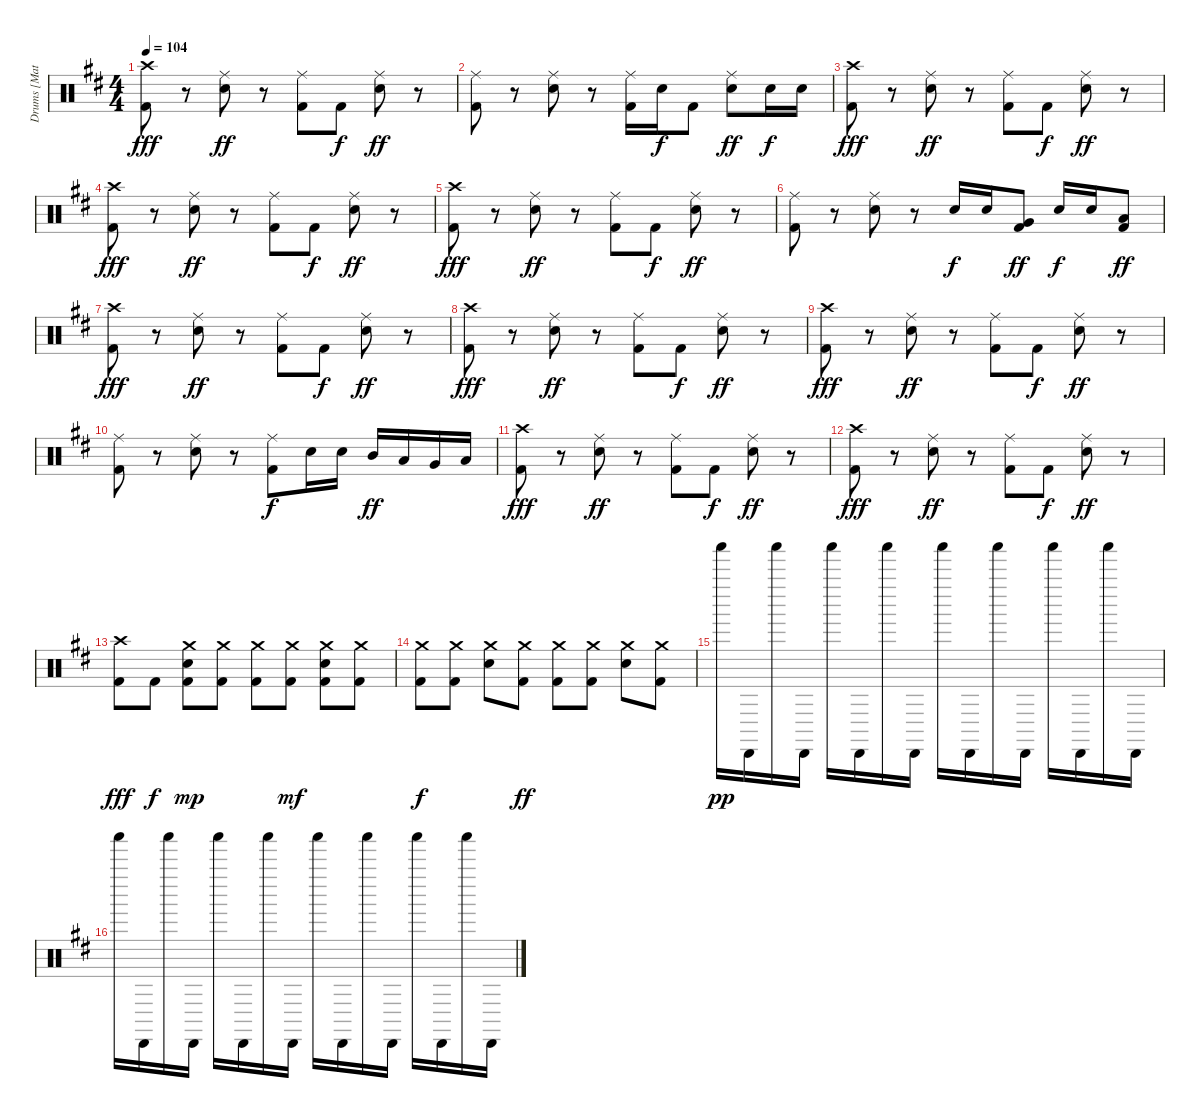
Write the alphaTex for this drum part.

\track ("Drums [Matt]" "Drums [Mat") {instrument percussion}
\staff {score}
\articulation defaults
\ts (4 4)
\tempo 104
\clef neutral
\ks d
("Kick (hit) 2" "Crash high (hit)").8{dy fff} r.8 ("Ride (middle)" "Snare (hit) 2").8{dy ff} r.8 ("Ride (middle)" "Kick (hit) 2").8 "Kick (hit) 2".8{dy f} ("Ride (middle)" "Snare (hit) 2").8{dy ff} r.8 |
("Ride (middle)" "Kick (hit) 2").8 r.8 ("Ride (middle)" "Snare (hit) 2").8 r.8 ("Ride (middle)" "Kick (hit) 2").16 "Snare (hit) 2".16{dy f} "Kick (hit) 2".8 ("Ride (middle)" "Snare (hit) 2").8{dy ff} "Snare (hit) 2".16{dy f} "Snare (hit) 2".16 |
("Kick (hit) 2" "Crash high (hit)").8{dy fff} r.8 ("Ride (middle)" "Snare (hit) 2").8{dy ff} r.8 ("Ride (middle)" "Kick (hit) 2").8 "Kick (hit) 2".8{dy f} ("Ride (middle)" "Snare (hit) 2").8{dy ff} r.8 |
("Kick (hit) 2" "Crash high (hit)").8{dy fff} r.8 ("Ride (middle)" "Snare (hit) 2").8{dy ff} r.8 ("Ride (middle)" "Kick (hit) 2").8 "Kick (hit) 2".8{dy f} ("Ride (middle)" "Snare (hit) 2").8{dy ff} r.8 |
("Kick (hit) 2" "Crash high (hit)").8{dy fff} r.8 ("Ride (middle)" "Snare (hit) 2").8{dy ff} r.8 ("Ride (middle)" "Kick (hit) 2").8 "Kick (hit) 2".8{dy f} ("Ride (middle)" "Snare (hit) 2").8{dy ff} r.8 |
("Ride (middle)" "Kick (hit) 2").8 r.8 ("Ride (middle)" "Snare (hit) 2").8 r.8 "Snare (hit) 2".16{dy f} "Snare (hit) 2".16 ("Kick (hit) 2" "Very Low Tom (hit)").8{dy ff} "Snare (hit) 2".16{dy f} "Snare (hit) 2".16 ("Kick (hit) 2" "Low Tom (hit)").8{dy ff} |
("Kick (hit) 2" "Crash high (hit)").8{dy fff} r.8 ("Ride (middle)" "Snare (hit) 2").8{dy ff} r.8 ("Ride (middle)" "Kick (hit) 2").8 "Kick (hit) 2".8{dy f} ("Ride (middle)" "Snare (hit) 2").8{dy ff} r.8 |
("Kick (hit) 2" "Crash high (hit)").8{dy fff} r.8 ("Ride (middle)" "Snare (hit) 2").8{dy ff} r.8 ("Ride (middle)" "Kick (hit) 2").8 "Kick (hit) 2".8{dy f} ("Ride (middle)" "Snare (hit) 2").8{dy ff} r.8 |
("Kick (hit) 2" "Crash high (hit)").8{dy fff} r.8 ("Ride (middle)" "Snare (hit) 2").8{dy ff} r.8 ("Ride (middle)" "Kick (hit) 2").8 "Kick (hit) 2".8{dy f} ("Ride (middle)" "Snare (hit) 2").8{dy ff} r.8 |
("Ride (middle)" "Kick (hit) 2").8 r.8 ("Ride (middle)" "Snare (hit) 2").8 r.8 ("Ride (middle)" "Kick (hit) 2").8{dy f} "Snare (hit) 2".16 "Snare (hit) 2".16 "Mid Tom (hit)".16{dy ff} "Low Tom (hit)".16 "Very Low Tom (hit)".16 "Low Floor Tom (hit)".16 |
("Kick (hit) 2" "Crash high (hit)").8{dy fff} r.8 ("Ride (middle)" "Snare (hit) 2").8{dy ff} r.8 ("Ride (middle)" "Kick (hit) 2").8 "Kick (hit) 2".8{dy f} ("Ride (middle)" "Snare (hit) 2").8{dy ff} r.8 |
("Kick (hit) 2" "Crash high (hit)").8{dy fff} r.8 ("Ride (middle)" "Snare (hit) 2").8{dy ff} r.8 ("Ride (middle)" "Kick (hit) 2").8 "Kick (hit) 2".8{dy f} ("Ride (middle)" "Snare (hit) 2").8{dy ff} r.8 |
("Kick (hit) 2" "Crash high (hit)").8{dy fff} "Kick (hit) 2".8{dy f} ("Crash medium (hit)" "Kick (hit) 2" "Snare (hit) 2").8{dy mp} ("Crash medium (hit)" "Kick (hit) 2").8 ("Crash medium (hit)" "Kick (hit) 2").8 ("Crash medium (hit)" "Kick (hit) 2").8{dy mf} ("Crash medium (hit)" "Kick (hit) 2" "Snare (hit) 2").8 ("Crash medium (hit)" "Kick (hit) 2").8 |
("Crash medium (hit)" "Kick (hit) 2").8{dy f} ("Crash medium (hit)" "Kick (hit) 2").8 ("Crash medium (hit)" "Snare (hit) 2").8 ("Crash medium (hit)" "Kick (hit) 2").8{dy ff} ("Crash medium (hit)" "Kick (hit) 2").8 ("Crash medium (hit)" "Kick (hit) 2").8 ("Crash medium (hit)" "Snare (hit) 2").8 ("Crash medium (hit)" "Kick (hit) 2").8 |
"Shaker (hit)".16{dy pp volume 13} "Cabasa (hit)".16 "Shaker (hit)".16 "Cabasa (hit)".16 "Shaker (hit)".16 "Cabasa (hit)".16 "Shaker (hit)".16 "Cabasa (hit)".16 "Shaker (hit)".16 "Cabasa (hit)".16 "Shaker (hit)".16 "Cabasa (hit)".16 "Shaker (hit)".16 "Cabasa (hit)".16 "Shaker (hit)".16 "Cabasa (hit)".16 |
"Shaker (hit)".16 "Cabasa (hit)".16 "Shaker (hit)".16 "Cabasa (hit)".16 "Shaker (hit)".16 "Cabasa (hit)".16 "Shaker (hit)".16 "Cabasa (hit)".16 "Shaker (hit)".16 "Cabasa (hit)".16 "Shaker (hit)".16 "Cabasa (hit)".16 "Shaker (hit)".16 "Cabasa (hit)".16 "Shaker (hit)".16 "Cabasa (hit)".16
